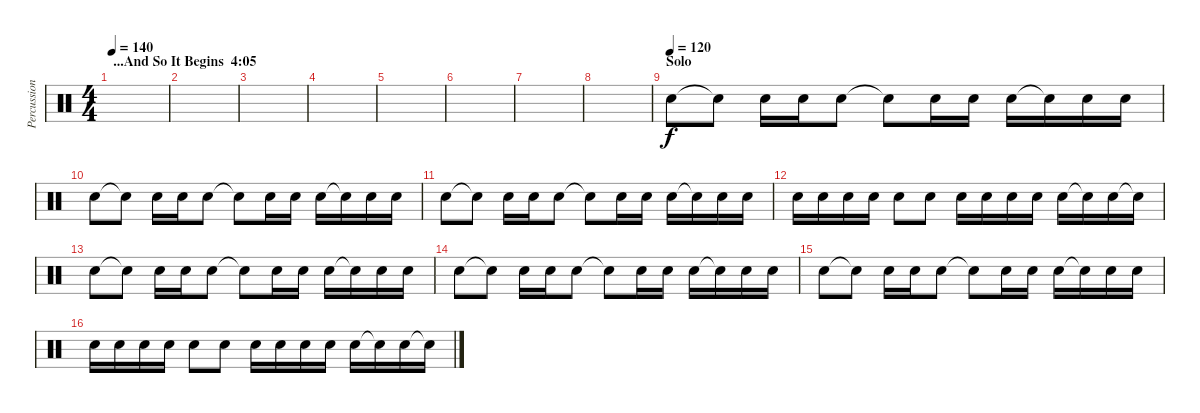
\track ("Percussion" "Percussion") {instrument percussion}
\staff {score}
\articulation defaults
\ts (4 4)
\section ("" "...And So It Begins  4:05")
\tempo 140
\tempo 120
\tempo 140
\clef neutral
\ks c
|
|
|
|
|
|
|
|
\section ("" "Solo")
\tempo (120)
"Snare (hit) 2".8 "Snare (hit)"{t}.8 "Snare (hit) 2".16 "Snare (hit) 2".16 "Snare (hit) 2".8 "Snare (hit)"{t}.8 "Snare (hit) 2".16 "Snare (hit) 2".16 "Snare (hit) 2".16 "Snare (hit)"{t}.16 "Snare (hit) 2".16 "Snare (hit) 2".16 |
"Snare (hit) 2".8 "Snare (hit)"{t}.8 "Snare (hit) 2".16 "Snare (hit) 2".16 "Snare (hit) 2".8 "Snare (hit)"{t}.8 "Snare (hit) 2".16 "Snare (hit) 2".16 "Snare (hit) 2".16 "Snare (hit)"{t}.16 "Snare (hit) 2".16 "Snare (hit) 2".16 |
"Snare (hit) 2".8 "Snare (hit)"{t}.8 "Snare (hit) 2".16 "Snare (hit) 2".16 "Snare (hit) 2".8 "Snare (hit)"{t}.8 "Snare (hit) 2".16 "Snare (hit) 2".16 "Snare (hit) 2".16 "Snare (hit)"{t}.16 "Snare (hit) 2".16 "Snare (hit) 2".16 |
"Snare (hit) 2".16 "Snare (hit) 2".16 "Snare (hit) 2".16 "Snare (hit) 2".16 "Snare (hit) 2".8 "Snare (hit) 2".8 "Snare (hit) 2".16 "Snare (hit) 2".16 "Snare (hit) 2".16 "Snare (hit) 2".16 "Snare (hit) 2".16 "Snare (hit) 2"{t}.16 "Snare (hit) 2".16 "Snare (hit)"{t}.16 |
"Snare (hit) 2".8 "Snare (hit)"{t}.8 "Snare (hit) 2".16 "Snare (hit) 2".16 "Snare (hit) 2".8 "Snare (hit)"{t}.8 "Snare (hit) 2".16 "Snare (hit) 2".16 "Snare (hit) 2".16 "Snare (hit)"{t}.16 "Snare (hit) 2".16 "Snare (hit) 2".16 |
"Snare (hit) 2".8 "Snare (hit)"{t}.8 "Snare (hit) 2".16 "Snare (hit) 2".16 "Snare (hit) 2".8 "Snare (hit)"{t}.8 "Snare (hit) 2".16 "Snare (hit) 2".16 "Snare (hit) 2".16 "Snare (hit)"{t}.16 "Snare (hit) 2".16 "Snare (hit) 2".16 |
"Snare (hit) 2".8 "Snare (hit)"{t}.8 "Snare (hit) 2".16 "Snare (hit) 2".16 "Snare (hit) 2".8 "Snare (hit)"{t}.8 "Snare (hit) 2".16 "Snare (hit) 2".16 "Snare (hit) 2".16 "Snare (hit)"{t}.16 "Snare (hit) 2".16 "Snare (hit) 2".16 |
"Snare (hit) 2".16 "Snare (hit) 2".16 "Snare (hit) 2".16 "Snare (hit) 2".16 "Snare (hit) 2".8 "Snare (hit) 2".8 "Snare (hit) 2".16 "Snare (hit) 2".16 "Snare (hit) 2".16 "Snare (hit) 2".16 "Snare (hit) 2".16 "Snare (hit) 2"{t}.16 "Snare (hit) 2".16 "Snare (hit)"{t}.16
